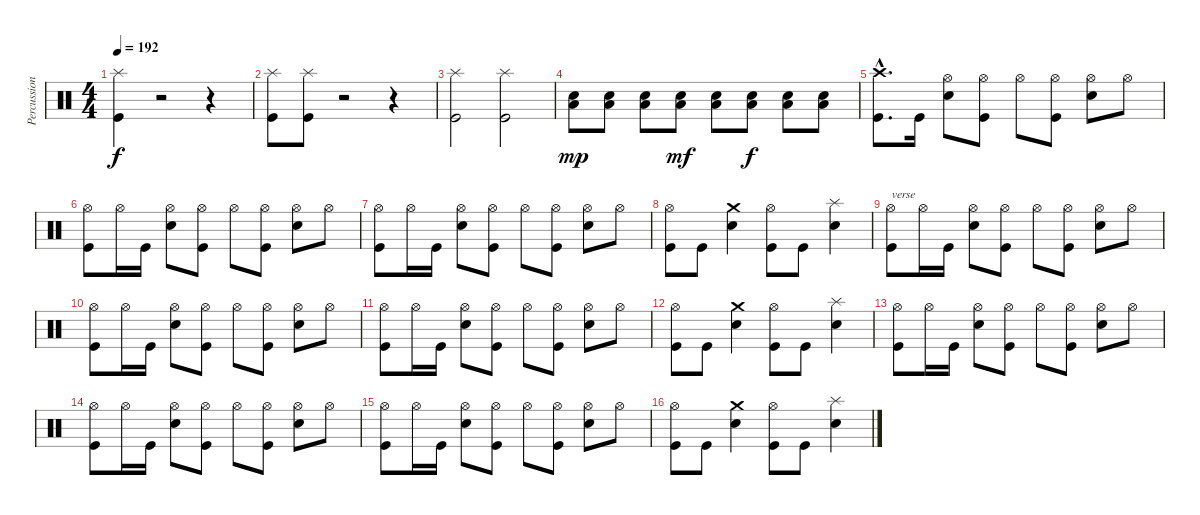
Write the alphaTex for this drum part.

\track ("Percussions" "Percussion") {instrument percussion}
\staff {score}
\articulation defaults
\ts (4 4)
\tempo 192
\clef neutral
\ks c
("Kick (hit)" "Splash (hit)").4{dy f} r.2 r.4 |
("Kick (hit)" "Splash (hit)").8 ("Kick (hit)" "Splash (hit)").8 r.2 r.4 |
("Kick (hit)" "Splash (hit)").2 ("Kick (hit)" "Splash (hit)").2 |
("Electric Snare (hit)" "Low Floor Tom (hit)").8{dy mp} ("Electric Snare (hit)" "Low Floor Tom (hit)").8 ("Electric Snare (hit)" "Low Floor Tom (hit)").8 ("Electric Snare (hit)" "Low Floor Tom (hit)").8{dy mf} ("Electric Snare (hit)" "Low Floor Tom (hit)").8 ("Electric Snare (hit)" "Low Floor Tom (hit)").8{dy f} ("Electric Snare (hit)" "Low Floor Tom (hit)").8 ("Electric Snare (hit)" "Low Floor Tom (hit)").8 |
("Kick (hit)"{hac} "Crash high (hit)"{hac}).8{d} "Kick (hit)".16 ("Electric Snare (hit)" "Hi-Hat (open)").8 ("Kick (hit)" "Hi-Hat (open)").8 "Hi-Hat (open)".8 ("Kick (hit)" "Hi-Hat (open)").8 ("Electric Snare (hit)" "Hi-Hat (open)").8 "Hi-Hat (open)".8 |
("Kick (hit)" "Hi-Hat (open)").8 "Hi-Hat (open)".16 "Kick (hit)".16 ("Electric Snare (hit)" "Hi-Hat (open)").8 ("Kick (hit)" "Hi-Hat (open)").8 "Hi-Hat (open)".8 ("Kick (hit)" "Hi-Hat (open)").8 ("Electric Snare (hit)" "Hi-Hat (open)").8 "Hi-Hat (open)".8 |
("Kick (hit)" "Hi-Hat (open)").8 "Hi-Hat (open)".16 "Kick (hit)".16 ("Electric Snare (hit)" "Hi-Hat (open)").8 ("Kick (hit)" "Hi-Hat (open)").8 "Hi-Hat (open)".8 ("Kick (hit)" "Hi-Hat (open)").8 ("Electric Snare (hit)" "Hi-Hat (open)").8 "Hi-Hat (open)".8 |
("Kick (hit)" "Hi-Hat (open)").8 "Kick (hit)".8 ("Electric Snare (hit)" "Crash medium (hit)").4 ("Kick (hit)" "Hi-Hat (open)").8 "Kick (hit)".8 ("Electric Snare (hit)" "Splash (hit)").4 |
("Kick (hit)" "Hi-Hat (open)").8{txt "verse"} "Hi-Hat (open)".16 "Kick (hit)".16 ("Electric Snare (hit)" "Hi-Hat (open)").8 ("Kick (hit)" "Hi-Hat (open)").8 "Hi-Hat (open)".8 ("Kick (hit)" "Hi-Hat (open)").8 ("Electric Snare (hit)" "Hi-Hat (open)").8 "Hi-Hat (open)".8 |
("Kick (hit)" "Hi-Hat (open)").8 "Hi-Hat (open)".16 "Kick (hit)".16 ("Electric Snare (hit)" "Hi-Hat (open)").8 ("Kick (hit)" "Hi-Hat (open)").8 "Hi-Hat (open)".8 ("Kick (hit)" "Hi-Hat (open)").8 ("Electric Snare (hit)" "Hi-Hat (open)").8 "Hi-Hat (open)".8 |
("Kick (hit)" "Hi-Hat (open)").8 "Hi-Hat (open)".16 "Kick (hit)".16 ("Electric Snare (hit)" "Hi-Hat (open)").8 ("Kick (hit)" "Hi-Hat (open)").8 "Hi-Hat (open)".8 ("Kick (hit)" "Hi-Hat (open)").8 ("Electric Snare (hit)" "Hi-Hat (open)").8 "Hi-Hat (open)".8 |
("Kick (hit)" "Hi-Hat (open)").8 "Kick (hit)".8 ("Electric Snare (hit)" "Crash medium (hit)").4 ("Kick (hit)" "Hi-Hat (open)").8 "Kick (hit)".8 ("Electric Snare (hit)" "Splash (hit)").4 |
("Kick (hit)" "Hi-Hat (open)").8 "Hi-Hat (open)".16 "Kick (hit)".16 ("Electric Snare (hit)" "Hi-Hat (open)").8 ("Kick (hit)" "Hi-Hat (open)").8 "Hi-Hat (open)".8 ("Kick (hit)" "Hi-Hat (open)").8 ("Electric Snare (hit)" "Hi-Hat (open)").8 "Hi-Hat (open)".8 |
("Kick (hit)" "Hi-Hat (open)").8 "Hi-Hat (open)".16 "Kick (hit)".16 ("Electric Snare (hit)" "Hi-Hat (open)").8 ("Kick (hit)" "Hi-Hat (open)").8 "Hi-Hat (open)".8 ("Kick (hit)" "Hi-Hat (open)").8 ("Electric Snare (hit)" "Hi-Hat (open)").8 "Hi-Hat (open)".8 |
("Kick (hit)" "Hi-Hat (open)").8 "Hi-Hat (open)".16 "Kick (hit)".16 ("Electric Snare (hit)" "Hi-Hat (open)").8 ("Kick (hit)" "Hi-Hat (open)").8 "Hi-Hat (open)".8 ("Kick (hit)" "Hi-Hat (open)").8 ("Electric Snare (hit)" "Hi-Hat (open)").8 "Hi-Hat (open)".8 |
("Kick (hit)" "Hi-Hat (open)").8 "Kick (hit)".8 ("Electric Snare (hit)" "Crash medium (hit)").4 ("Kick (hit)" "Hi-Hat (open)").8 "Kick (hit)".8 ("Electric Snare (hit)" "Splash (hit)").4
